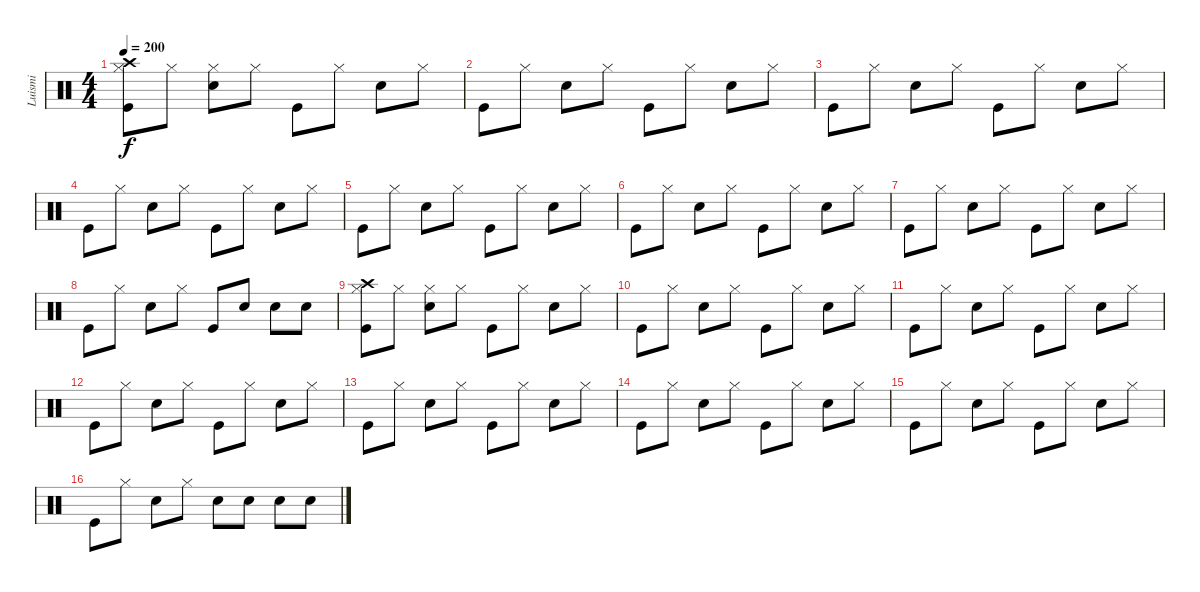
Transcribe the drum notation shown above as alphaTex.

\track ("Luismi" "Luismi") {instrument percussion}
\staff {score}
\articulation defaults
\ts (4 4)
\tempo 200
\clef neutral
\ks c
("Kick (hit)" "Crash high (hit)" "Hi-Hat (closed)").8{dy f} "Hi-Hat (closed)".8 ("Snare (hit) 2" "Hi-Hat (closed)").8 "Hi-Hat (closed)".8 "Kick (hit)".8 "Hi-Hat (closed)".8 "Snare (hit) 2".8 "Hi-Hat (closed)".8 |
"Kick (hit)".8 "Hi-Hat (closed)".8 "Snare (hit) 2".8 "Hi-Hat (closed)".8 "Kick (hit)".8 "Hi-Hat (closed)".8 "Snare (hit) 2".8 "Hi-Hat (closed)".8 |
"Kick (hit)".8 "Hi-Hat (closed)".8 "Snare (hit) 2".8 "Hi-Hat (closed)".8 "Kick (hit)".8 "Hi-Hat (closed)".8 "Snare (hit) 2".8 "Hi-Hat (closed)".8 |
"Kick (hit)".8 "Hi-Hat (closed)".8 "Snare (hit) 2".8 "Hi-Hat (closed)".8 "Kick (hit)".8 "Hi-Hat (closed)".8 "Snare (hit) 2".8 "Hi-Hat (closed)".8 |
"Kick (hit)".8 "Hi-Hat (closed)".8 "Snare (hit) 2".8 "Hi-Hat (closed)".8 "Kick (hit)".8 "Hi-Hat (closed)".8 "Snare (hit) 2".8 "Hi-Hat (closed)".8 |
"Kick (hit)".8 "Hi-Hat (closed)".8 "Snare (hit) 2".8 "Hi-Hat (closed)".8 "Kick (hit)".8 "Hi-Hat (closed)".8 "Snare (hit) 2".8 "Hi-Hat (closed)".8 |
"Kick (hit)".8 "Hi-Hat (closed)".8 "Snare (hit) 2".8 "Hi-Hat (closed)".8 "Kick (hit)".8 "Hi-Hat (closed)".8 "Snare (hit) 2".8 "Hi-Hat (closed)".8 |
"Kick (hit)".8 "Hi-Hat (closed)".8 "Snare (hit) 2".8 "Hi-Hat (closed)".8 "Kick (hit)".8 "Snare (hit) 2".8 "Snare (hit) 2".8 "Snare (hit) 2".8 |
("Kick (hit)" "Crash high (hit)" "Hi-Hat (closed)").8 "Hi-Hat (closed)".8 ("Snare (hit) 2" "Hi-Hat (closed)").8 "Hi-Hat (closed)".8 "Kick (hit)".8 "Hi-Hat (closed)".8 "Snare (hit) 2".8 "Hi-Hat (closed)".8 |
"Kick (hit)".8 "Hi-Hat (closed)".8 "Snare (hit) 2".8 "Hi-Hat (closed)".8 "Kick (hit)".8 "Hi-Hat (closed)".8 "Snare (hit) 2".8 "Hi-Hat (closed)".8 |
"Kick (hit)".8 "Hi-Hat (closed)".8 "Snare (hit) 2".8 "Hi-Hat (closed)".8 "Kick (hit)".8 "Hi-Hat (closed)".8 "Snare (hit) 2".8 "Hi-Hat (closed)".8 |
"Kick (hit)".8 "Hi-Hat (closed)".8 "Snare (hit) 2".8 "Hi-Hat (closed)".8 "Kick (hit)".8 "Hi-Hat (closed)".8 "Snare (hit) 2".8 "Hi-Hat (closed)".8 |
"Kick (hit)".8 "Hi-Hat (closed)".8 "Snare (hit) 2".8 "Hi-Hat (closed)".8 "Kick (hit)".8 "Hi-Hat (closed)".8 "Snare (hit) 2".8 "Hi-Hat (closed)".8 |
"Kick (hit)".8 "Hi-Hat (closed)".8 "Snare (hit) 2".8 "Hi-Hat (closed)".8 "Kick (hit)".8 "Hi-Hat (closed)".8 "Snare (hit) 2".8 "Hi-Hat (closed)".8 |
"Kick (hit)".8 "Hi-Hat (closed)".8 "Snare (hit) 2".8 "Hi-Hat (closed)".8 "Kick (hit)".8 "Hi-Hat (closed)".8 "Snare (hit) 2".8 "Hi-Hat (closed)".8 |
"Kick (hit)".8 "Hi-Hat (closed)".8 "Snare (hit) 2".8 "Hi-Hat (closed)".8 "Snare (hit) 2".8 "Snare (hit) 2".8 "Snare (hit) 2".8 "Snare (hit) 2".8
